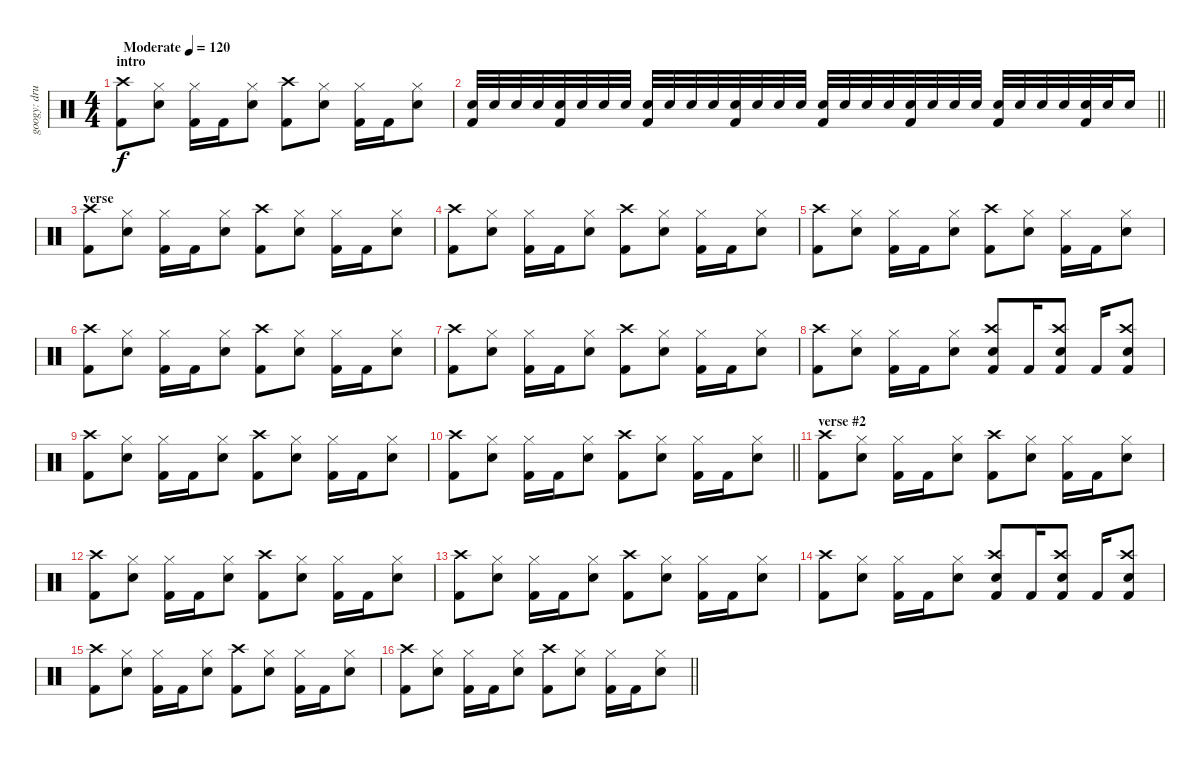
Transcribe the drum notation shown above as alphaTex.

\track ("googy: drums" "googy: dru") {instrument percussion}
\staff {score}
\articulation defaults
\ts (4 4)
\section ("" "intro")
\tempo (120 "Moderate")
\clef neutral
\ks c
("Kick (hit) 2" "Crash high (hit)").8{dy f} ("Hi-Hat (closed)" "Electric Snare (hit)").8 ("Hi-Hat (closed)" "Kick (hit) 2").16 "Kick (hit) 2".16 ("Hi-Hat (closed)" "Electric Snare (hit)").8 ("Kick (hit) 2" "Crash high (hit)").8 ("Hi-Hat (closed)" "Electric Snare (hit)").8 ("Hi-Hat (closed)" "Kick (hit) 2").16 "Kick (hit) 2".16 ("Hi-Hat (closed)" "Electric Snare (hit)").8 |
\barLineRight lightlight
("Kick (hit) 2" "Electric Snare (hit)").32 "Electric Snare (hit)".32 "Electric Snare (hit)".32 "Electric Snare (hit)".32 ("Kick (hit) 2" "Electric Snare (hit)").32 "Electric Snare (hit)".32 "Electric Snare (hit)".32 "Electric Snare (hit)".32 ("Kick (hit) 2" "Electric Snare (hit)").32 "Electric Snare (hit)".32 "Electric Snare (hit)".32 "Electric Snare (hit)".32 ("Kick (hit) 2" "Electric Snare (hit)").32 "Electric Snare (hit)".32 "Electric Snare (hit)".32 "Electric Snare (hit)".32 ("Kick (hit) 2" "Electric Snare (hit)").32 "Electric Snare (hit)".32 "Electric Snare (hit)".32 "Electric Snare (hit)".32 ("Kick (hit) 2" "Electric Snare (hit)").32 "Electric Snare (hit)".32 "Electric Snare (hit)".32 "Electric Snare (hit)".32 ("Electric Snare (hit)" "Kick (hit) 2").32 "Electric Snare (hit)".32 "Electric Snare (hit)".32 "Electric Snare (hit)".32 ("Electric Snare (hit)" "Kick (hit) 2").32 "Electric Snare (hit)".32 "Electric Snare (hit)".16 |
\section ("" "verse")
("Kick (hit) 2" "Crash high (hit)").8 ("Hi-Hat (closed)" "Electric Snare (hit)").8 ("Hi-Hat (closed)" "Kick (hit) 2").16 "Kick (hit) 2".16 ("Hi-Hat (closed)" "Electric Snare (hit)").8 ("Kick (hit) 2" "Crash high (hit)").8 ("Hi-Hat (closed)" "Electric Snare (hit)").8 ("Hi-Hat (closed)" "Kick (hit) 2").16 "Kick (hit) 2".16 ("Hi-Hat (closed)" "Electric Snare (hit)").8 |
("Kick (hit) 2" "Crash high (hit)").8 ("Hi-Hat (closed)" "Electric Snare (hit)").8 ("Hi-Hat (closed)" "Kick (hit) 2").16 "Kick (hit) 2".16 ("Hi-Hat (closed)" "Electric Snare (hit)").8 ("Kick (hit) 2" "Crash high (hit)").8 ("Hi-Hat (closed)" "Electric Snare (hit)").8 ("Hi-Hat (closed)" "Kick (hit) 2").16 "Kick (hit) 2".16 ("Hi-Hat (closed)" "Electric Snare (hit)").8 |
("Kick (hit) 2" "Crash high (hit)").8 ("Hi-Hat (closed)" "Electric Snare (hit)").8 ("Hi-Hat (closed)" "Kick (hit) 2").16 "Kick (hit) 2".16 ("Hi-Hat (closed)" "Electric Snare (hit)").8 ("Kick (hit) 2" "Crash high (hit)").8 ("Hi-Hat (closed)" "Electric Snare (hit)").8 ("Hi-Hat (closed)" "Kick (hit) 2").16 "Kick (hit) 2".16 ("Hi-Hat (closed)" "Electric Snare (hit)").8 |
("Kick (hit) 2" "Crash high (hit)").8 ("Hi-Hat (closed)" "Electric Snare (hit)").8 ("Hi-Hat (closed)" "Kick (hit) 2").16 "Kick (hit) 2".16 ("Hi-Hat (closed)" "Electric Snare (hit)").8 ("Kick (hit) 2" "Crash high (hit)").8 ("Hi-Hat (closed)" "Electric Snare (hit)").8 ("Hi-Hat (closed)" "Kick (hit) 2").16 "Kick (hit) 2".16 ("Hi-Hat (closed)" "Electric Snare (hit)").8 |
("Kick (hit) 2" "Crash high (hit)").8 ("Hi-Hat (closed)" "Electric Snare (hit)").8 ("Hi-Hat (closed)" "Kick (hit) 2").16 "Kick (hit) 2".16 ("Hi-Hat (closed)" "Electric Snare (hit)").8 ("Kick (hit) 2" "Crash high (hit)").8 ("Hi-Hat (closed)" "Electric Snare (hit)").8 ("Hi-Hat (closed)" "Kick (hit) 2").16 "Kick (hit) 2".16 ("Hi-Hat (closed)" "Electric Snare (hit)").8 |
("Kick (hit) 2" "Crash high (hit)").8 ("Hi-Hat (closed)" "Electric Snare (hit)").8 ("Hi-Hat (closed)" "Kick (hit) 2").16 "Kick (hit) 2".16 ("Hi-Hat (closed)" "Electric Snare (hit)").8 ("Electric Snare (hit)" "Kick (hit) 2" "Crash high (hit)").8 "Kick (hit) 2".16 ("Crash high (hit)" "Kick (hit) 2" "Electric Snare (hit)").8 "Kick (hit) 2".16 ("Crash high (hit)" "Kick (hit) 2" "Electric Snare (hit)").8 |
("Kick (hit) 2" "Crash high (hit)").8 ("Hi-Hat (closed)" "Electric Snare (hit)").8 ("Hi-Hat (closed)" "Kick (hit) 2").16 "Kick (hit) 2".16 ("Hi-Hat (closed)" "Electric Snare (hit)").8 ("Kick (hit) 2" "Crash high (hit)").8 ("Hi-Hat (closed)" "Electric Snare (hit)").8 ("Hi-Hat (closed)" "Kick (hit) 2").16 "Kick (hit) 2".16 ("Hi-Hat (closed)" "Electric Snare (hit)").8 |
\barLineRight lightlight
("Kick (hit) 2" "Crash high (hit)").8 ("Hi-Hat (closed)" "Electric Snare (hit)").8 ("Hi-Hat (closed)" "Kick (hit) 2").16 "Kick (hit) 2".16 ("Hi-Hat (closed)" "Electric Snare (hit)").8 ("Kick (hit) 2" "Crash high (hit)").8 ("Hi-Hat (closed)" "Electric Snare (hit)").8 ("Hi-Hat (closed)" "Kick (hit) 2").16 "Kick (hit) 2".16 ("Hi-Hat (closed)" "Electric Snare (hit)").8 |
\section ("" "verse #2")
("Kick (hit) 2" "Crash high (hit)").8 ("Hi-Hat (closed)" "Electric Snare (hit)").8 ("Hi-Hat (closed)" "Kick (hit) 2").16 "Kick (hit) 2".16 ("Hi-Hat (closed)" "Electric Snare (hit)").8 ("Kick (hit) 2" "Crash high (hit)").8 ("Hi-Hat (closed)" "Electric Snare (hit)").8 ("Hi-Hat (closed)" "Kick (hit) 2").16 "Kick (hit) 2".16 ("Hi-Hat (closed)" "Electric Snare (hit)").8 |
("Kick (hit) 2" "Crash high (hit)").8 ("Hi-Hat (closed)" "Electric Snare (hit)").8 ("Hi-Hat (closed)" "Kick (hit) 2").16 "Kick (hit) 2".16 ("Hi-Hat (closed)" "Electric Snare (hit)").8 ("Kick (hit) 2" "Crash high (hit)").8 ("Hi-Hat (closed)" "Electric Snare (hit)").8 ("Hi-Hat (closed)" "Kick (hit) 2").16 "Kick (hit) 2".16 ("Hi-Hat (closed)" "Electric Snare (hit)").8 |
("Kick (hit) 2" "Crash high (hit)").8 ("Hi-Hat (closed)" "Electric Snare (hit)").8 ("Hi-Hat (closed)" "Kick (hit) 2").16 "Kick (hit) 2".16 ("Hi-Hat (closed)" "Electric Snare (hit)").8 ("Kick (hit) 2" "Crash high (hit)").8 ("Hi-Hat (closed)" "Electric Snare (hit)").8 ("Hi-Hat (closed)" "Kick (hit) 2").16 "Kick (hit) 2".16 ("Hi-Hat (closed)" "Electric Snare (hit)").8 |
("Kick (hit) 2" "Crash high (hit)").8 ("Hi-Hat (closed)" "Electric Snare (hit)").8 ("Hi-Hat (closed)" "Kick (hit) 2").16 "Kick (hit) 2".16 ("Hi-Hat (closed)" "Electric Snare (hit)").8 ("Electric Snare (hit)" "Kick (hit) 2" "Crash high (hit)").8 "Kick (hit) 2".16 ("Crash high (hit)" "Kick (hit) 2" "Electric Snare (hit)").8 "Kick (hit) 2".16 ("Crash high (hit)" "Kick (hit) 2" "Electric Snare (hit)").8 |
("Kick (hit) 2" "Crash high (hit)").8 ("Hi-Hat (closed)" "Electric Snare (hit)").8 ("Hi-Hat (closed)" "Kick (hit) 2").16 "Kick (hit) 2".16 ("Hi-Hat (closed)" "Electric Snare (hit)").8 ("Kick (hit) 2" "Crash high (hit)").8 ("Hi-Hat (closed)" "Electric Snare (hit)").8 ("Hi-Hat (closed)" "Kick (hit) 2").16 "Kick (hit) 2".16 ("Hi-Hat (closed)" "Electric Snare (hit)").8 |
\barLineRight lightlight
("Kick (hit) 2" "Crash high (hit)").8 ("Hi-Hat (closed)" "Electric Snare (hit)").8 ("Hi-Hat (closed)" "Kick (hit) 2").16 "Kick (hit) 2".16 ("Hi-Hat (closed)" "Electric Snare (hit)").8 ("Kick (hit) 2" "Crash high (hit)").8 ("Hi-Hat (closed)" "Electric Snare (hit)").8 ("Hi-Hat (closed)" "Kick (hit) 2").16 "Kick (hit) 2".16 ("Hi-Hat (closed)" "Electric Snare (hit)").8
